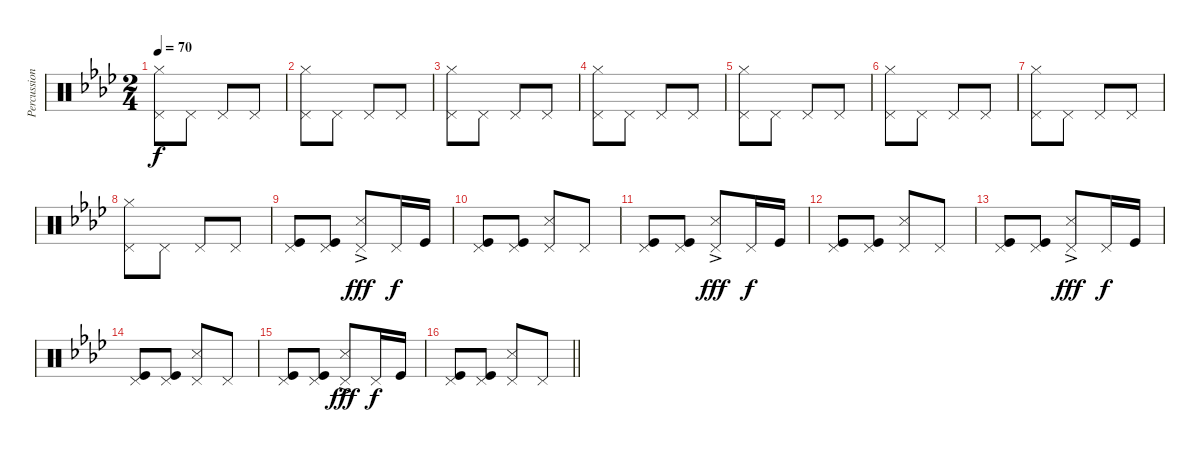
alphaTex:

\track ("Percussions" "Percussion") {instrument percussion}
\staff {score}
\articulation defaults
\ts (2 4)
\tempo 70
\clef neutral
\ks fminor
("Hi-Hat (closed)" "Pedal Hi-Hat (hit)").8{dy f} "Pedal Hi-Hat (hit)".8 "Pedal Hi-Hat (hit)".8 "Pedal Hi-Hat (hit)".8 |
("Hi-Hat (closed)" "Pedal Hi-Hat (hit)").8 "Pedal Hi-Hat (hit)".8 "Pedal Hi-Hat (hit)".8 "Pedal Hi-Hat (hit)".8 |
("Hi-Hat (closed)" "Pedal Hi-Hat (hit)").8 "Pedal Hi-Hat (hit)".8 "Pedal Hi-Hat (hit)".8 "Pedal Hi-Hat (hit)".8 |
("Hi-Hat (closed)" "Pedal Hi-Hat (hit)").8 "Pedal Hi-Hat (hit)".8 "Pedal Hi-Hat (hit)".8 "Pedal Hi-Hat (hit)".8 |
("Hi-Hat (closed)" "Pedal Hi-Hat (hit)").8 "Pedal Hi-Hat (hit)".8 "Pedal Hi-Hat (hit)".8 "Pedal Hi-Hat (hit)".8 |
("Hi-Hat (closed)" "Pedal Hi-Hat (hit)").8 "Pedal Hi-Hat (hit)".8 "Pedal Hi-Hat (hit)".8 "Pedal Hi-Hat (hit)".8 |
("Hi-Hat (closed)" "Pedal Hi-Hat (hit)").8 "Pedal Hi-Hat (hit)".8 "Pedal Hi-Hat (hit)".8 "Pedal Hi-Hat (hit)".8 |
("Hi-Hat (closed)" "Pedal Hi-Hat (hit)").8 "Pedal Hi-Hat (hit)".8 "Pedal Hi-Hat (hit)".8 "Pedal Hi-Hat (hit)".8 |
("Kick (hit)" "Pedal Hi-Hat (hit)").8 ("Kick (hit)" "Pedal Hi-Hat (hit)").8 ("Snare (side stick) 3"{ac} "Pedal Hi-Hat (hit)").8{dy fff} "Pedal Hi-Hat (hit)".16{dy f} "Kick (hit)".16 |
("Kick (hit)" "Pedal Hi-Hat (hit)").8 ("Kick (hit)" "Pedal Hi-Hat (hit)").8 ("Snare (side stick) 3" "Pedal Hi-Hat (hit)").8 "Pedal Hi-Hat (hit)".8 |
("Kick (hit)" "Pedal Hi-Hat (hit)").8 ("Kick (hit)" "Pedal Hi-Hat (hit)").8 ("Snare (side stick) 3"{ac} "Pedal Hi-Hat (hit)").8{dy fff} "Pedal Hi-Hat (hit)".16{dy f} "Kick (hit)".16 |
("Kick (hit)" "Pedal Hi-Hat (hit)").8 ("Kick (hit)" "Pedal Hi-Hat (hit)").8 ("Snare (side stick) 3" "Pedal Hi-Hat (hit)").8 "Pedal Hi-Hat (hit)".8 |
("Kick (hit)" "Pedal Hi-Hat (hit)").8 ("Kick (hit)" "Pedal Hi-Hat (hit)").8 ("Snare (side stick) 3"{ac} "Pedal Hi-Hat (hit)").8{dy fff} "Pedal Hi-Hat (hit)".16{dy f} "Kick (hit)".16 |
("Kick (hit)" "Pedal Hi-Hat (hit)").8 ("Kick (hit)" "Pedal Hi-Hat (hit)").8 ("Snare (side stick) 3" "Pedal Hi-Hat (hit)").8 "Pedal Hi-Hat (hit)".8 |
("Kick (hit)" "Pedal Hi-Hat (hit)").8 ("Kick (hit)" "Pedal Hi-Hat (hit)").8 ("Snare (side stick) 3"{ac} "Pedal Hi-Hat (hit)").8{dy fff} "Pedal Hi-Hat (hit)".16{dy f} "Kick (hit)".16 |
\barLineRight lightlight
("Kick (hit)" "Pedal Hi-Hat (hit)").8 ("Kick (hit)" "Pedal Hi-Hat (hit)").8 ("Snare (side stick) 3" "Pedal Hi-Hat (hit)").8 "Pedal Hi-Hat (hit)".8
